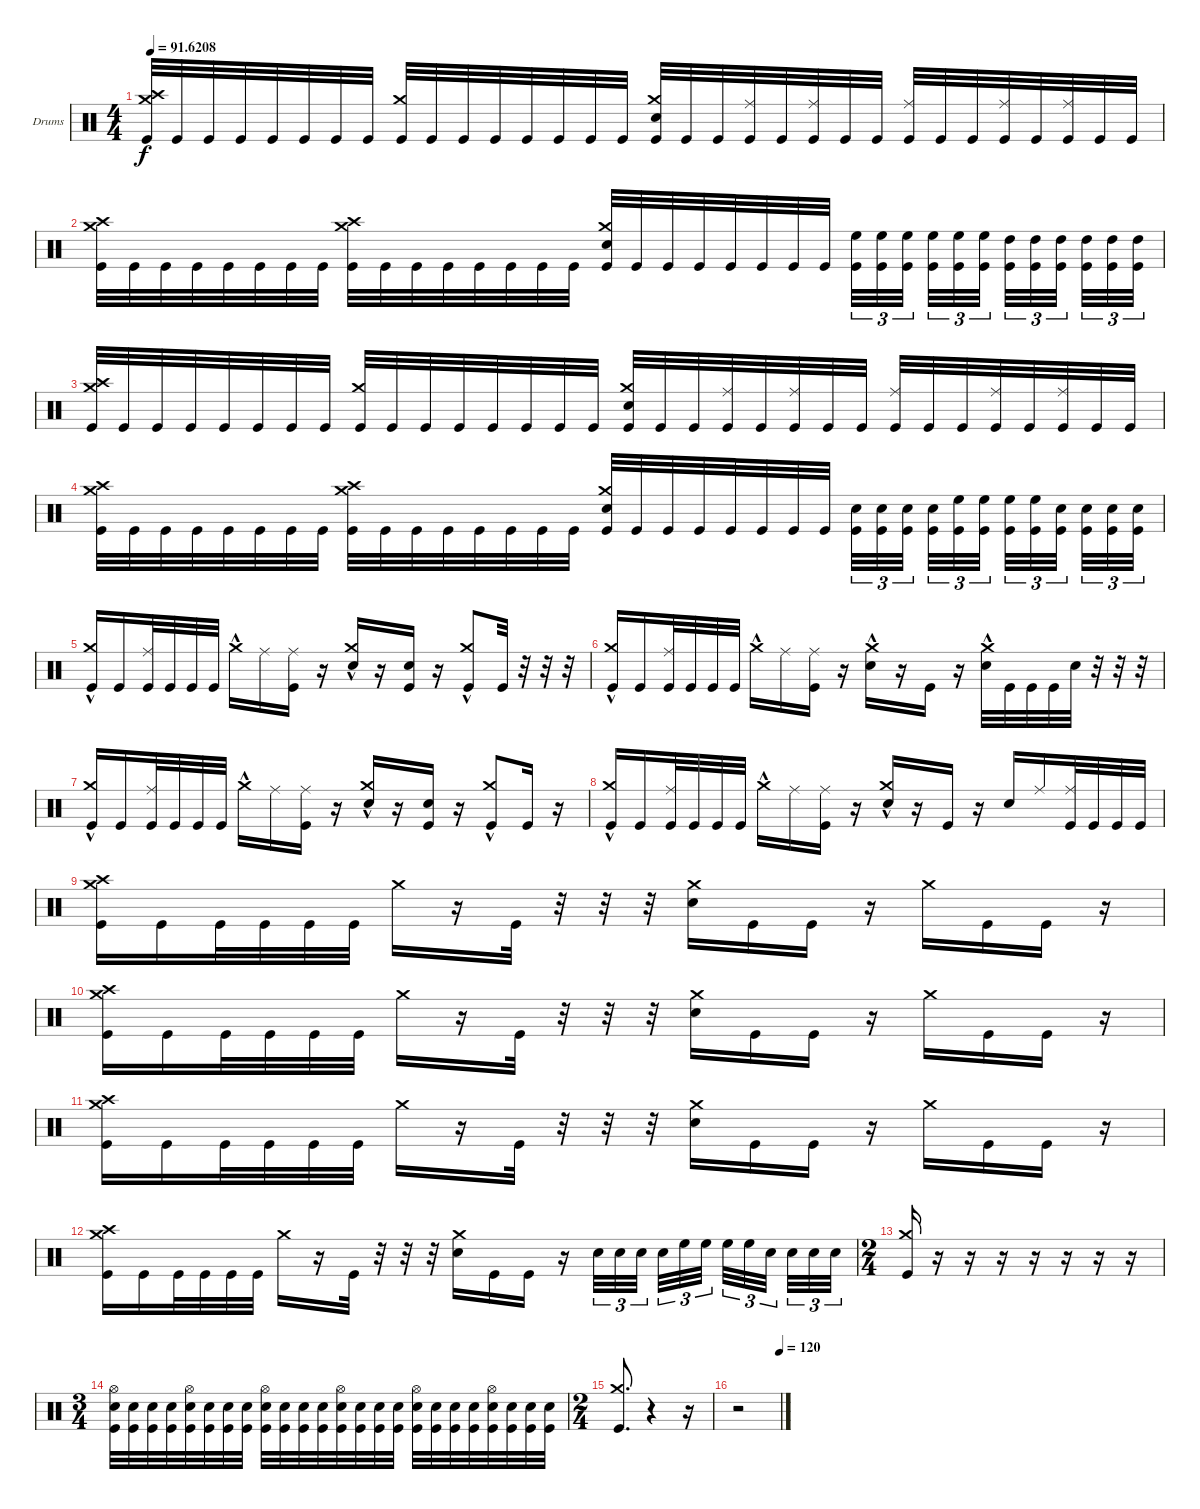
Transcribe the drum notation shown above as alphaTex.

\defaultSystemsLayout 4
\bracketExtendMode groupsimilarinstruments
\firstSystemTrackNameOrientation horizontal
\otherSystemsTrackNameOrientation horizontal
\track ("Drumkit" "Drums") {instrument percussion}
\staff {score}
\articulation defaults
\ts (4 4)
\tempo
91.6208
\accidentals auto
\clef neutral
\ottava regular
\simile none
\ks c
("Crash medium (hit)" "Crash high (hit)" "Kick (hit)").32{dy f} "Kick (hit)".32 "Kick (hit)".32 "Kick (hit)".32 "Kick (hit)".32 "Kick (hit)".32 "Kick (hit)".32 "Kick (hit)".32 ("Kick (hit)" "Crash medium (hit)").32{beam invert} "Kick (hit)".32 "Kick (hit)".32 "Kick (hit)".32 "Kick (hit)".32 "Kick (hit)".32 "Kick (hit)".32 "Kick (hit)".32 ("Kick (hit)" "Snare (hit) 2" "Crash medium (hit)").32 "Kick (hit)".32 "Kick (hit)".32 ("Kick (hit)" "Ride (middle)").32 "Kick (hit)".32 ("Kick (hit)" "Ride (middle)").32 "Kick (hit)".32 "Kick (hit)".32 ("Kick (hit)" "Ride (middle)").32{beam invert} "Kick (hit)".32 "Kick (hit)".32 ("Kick (hit)" "Ride (middle)").32 "Kick (hit)".32 ("Kick (hit)" "Ride (middle)").32 "Kick (hit)".32 "Kick (hit)".32 |
("Crash medium (hit)" "Crash high (hit)" "Kick (hit)").32 "Kick (hit)".32 "Kick (hit)".32 "Kick (hit)".32 "Kick (hit)".32 "Kick (hit)".32 "Kick (hit)".32 "Kick (hit)".32 ("Kick (hit)" "Crash medium (hit)" "Crash high (hit)").32 "Kick (hit)".32 "Kick (hit)".32 "Kick (hit)".32 "Kick (hit)".32 "Kick (hit)".32 "Kick (hit)".32 "Kick (hit)".32 ("Kick (hit)" "Snare (hit) 2" "Crash medium (hit)").32 "Kick (hit)".32 "Kick (hit)".32 "Kick (hit)".32 "Kick (hit)".32 "Kick (hit)".32 "Kick (hit)".32 "Kick (hit)".32 ("Kick (hit)" "High Floor Tom (hit)").32{tu (3 2) beam invert} ("Kick (hit)" "High Floor Tom (hit)").32{tu (3 2)} ("Kick (hit)" "High Floor Tom (hit)").32{tu (3 2)} ("Kick (hit)" "High Floor Tom (hit)").32{tu (3 2) beam invert} ("Kick (hit)" "High Floor Tom (hit)").32{tu (3 2)} ("Kick (hit)" "High Floor Tom (hit)").32{tu (3 2)} ("Kick (hit)" "High Tom (hit)").32{tu (3 2) beam invert} ("Kick (hit)" "High Tom (hit)").32{tu (3 2)} ("Kick (hit)" "High Tom (hit)").32{tu (3 2)} ("Kick (hit)" "High Tom (hit)").32{tu (3 2) beam invert} ("Kick (hit)" "High Tom (hit)").32{tu (3 2)} ("Kick (hit)" "High Tom (hit)").32{tu (3 2)} |
("Crash medium (hit)" "Crash high (hit)" "Kick (hit)").32 "Kick (hit)".32 "Kick (hit)".32 "Kick (hit)".32 "Kick (hit)".32 "Kick (hit)".32 "Kick (hit)".32 "Kick (hit)".32 ("Kick (hit)" "Crash medium (hit)").32{beam invert} "Kick (hit)".32 "Kick (hit)".32 "Kick (hit)".32 "Kick (hit)".32 "Kick (hit)".32 "Kick (hit)".32 "Kick (hit)".32 ("Kick (hit)" "Snare (hit) 2" "Crash medium (hit)").32 "Kick (hit)".32 "Kick (hit)".32 ("Kick (hit)" "Ride (middle)").32 "Kick (hit)".32 ("Kick (hit)" "Ride (middle)").32 "Kick (hit)".32 "Kick (hit)".32 ("Kick (hit)" "Ride (middle)").32{beam invert} "Kick (hit)".32 "Kick (hit)".32 ("Kick (hit)" "Ride (middle)").32 "Kick (hit)".32 ("Kick (hit)" "Ride (middle)").32 "Kick (hit)".32 "Kick (hit)".32 |
("Crash medium (hit)" "Crash high (hit)" "Kick (hit)").32 "Kick (hit)".32 "Kick (hit)".32 "Kick (hit)".32 "Kick (hit)".32 "Kick (hit)".32 "Kick (hit)".32 "Kick (hit)".32 ("Kick (hit)" "Crash medium (hit)" "Crash high (hit)").32 "Kick (hit)".32 "Kick (hit)".32 "Kick (hit)".32 "Kick (hit)".32 "Kick (hit)".32 "Kick (hit)".32 "Kick (hit)".32 ("Kick (hit)" "Snare (hit) 2" "Crash medium (hit)").32 "Kick (hit)".32 "Kick (hit)".32 "Kick (hit)".32 "Kick (hit)".32 "Kick (hit)".32 "Kick (hit)".32 "Kick (hit)".32 ("Kick (hit)" "Snare (hit) 2").32{tu (3 2) beam invert} ("Kick (hit)" "Snare (hit) 2").32{tu (3 2)} ("Kick (hit)" "Snare (hit) 2").32{tu (3 2)} ("Kick (hit)" "Snare (hit) 2").32{tu (3 2) beam invert} ("Kick (hit)" "High Floor Tom (hit)").32{tu (3 2)} ("Kick (hit)" "High Floor Tom (hit)").32{tu (3 2)} ("Kick (hit)" "High Floor Tom (hit)").32{tu (3 2) beam invert} ("Kick (hit)" "High Floor Tom (hit)").32{tu (3 2)} ("Kick (hit)" "Snare (hit) 2").32{tu (3 2)} ("Kick (hit)" "Snare (hit) 2").32{tu (3 2) beam invert} ("Kick (hit)" "Snare (hit) 2").32{tu (3 2)} ("Kick (hit)" "Snare (hit) 2").32{tu (3 2)} |
("Crash medium (hit)"{hac} "Kick (hit)").16{beam invert} "Kick (hit)".16 ("Kick (hit)" "Ride (middle)").32 "Kick (hit)".32 "Kick (hit)".32 "Kick (hit)".32 "Crash medium (hit)"{hac}.16 "Ride (middle)".16 ("Ride (middle)" "Kick (hit)").16 r.16 ("Snare (hit) 2" "Crash medium (hit)"{hac}).16 r.16 ("Snare (hit) 2" "Kick (hit)").16 r.16 ("Kick (hit)" "Crash medium (hit)"{hac}).8{beam invert} "Kick (hit)".32 r.32 r.32 r.32 |
("Crash medium (hit)"{hac} "Kick (hit)").16{beam invert} "Kick (hit)".16 ("Kick (hit)" "Ride (middle)").32 "Kick (hit)".32 "Kick (hit)".32 "Kick (hit)".32 "Crash medium (hit)"{hac}.16 "Ride (middle)".16 ("Ride (middle)" "Kick (hit)").16 r.16 ("Snare (hit) 2" "Crash medium (hit)"{hac}).16 r.16 "Kick (hit)".16 r.16 ("Snare (hit) 2" "Crash medium (hit)"{hac}).32 "Kick (hit)".32 "Kick (hit)".32 "Kick (hit)".32 "Snare (hit) 2".32 r.32 r.32 r.32 |
("Crash medium (hit)"{hac} "Kick (hit)").16{beam invert} "Kick (hit)".16 ("Kick (hit)" "Ride (middle)").32 "Kick (hit)".32 "Kick (hit)".32 "Kick (hit)".32 "Crash medium (hit)"{hac}.16 "Ride (middle)".16 ("Ride (middle)" "Kick (hit)").16 r.16 ("Snare (hit) 2" "Crash medium (hit)"{hac}).16 r.16 ("Snare (hit) 2" "Kick (hit)").16 r.16 ("Kick (hit)" "Crash medium (hit)"{hac}).8{beam invert} "Kick (hit)".16 r.16 |
("Crash medium (hit)"{hac} "Kick (hit)").16{beam invert} "Kick (hit)".16 ("Kick (hit)" "Ride (middle)").32 "Kick (hit)".32 "Kick (hit)".32 "Kick (hit)".32 "Crash medium (hit)"{hac}.16 "Ride (middle)".16 ("Ride (middle)" "Kick (hit)").16 r.16 ("Snare (hit) 2" "Crash medium (hit)"{hac}).16 r.16 "Kick (hit)".16 r.16 "Snare (hit) 2".16{beam invert} "Ride (middle)".16 ("Ride (middle)" "Kick (hit)").32 "Kick (hit)".32 "Kick (hit)".32 "Kick (hit)".32 |
("Crash medium (hit)" "Crash high (hit)" "Kick (hit)").16 "Kick (hit)".16 "Kick (hit)".32 "Kick (hit)".32 "Kick (hit)".32 "Kick (hit)".32 "Crash medium (hit)".16 r.16 "Kick (hit)".32 r.32 r.32 r.32 ("Snare (hit) 2" "Crash medium (hit)").16 "Kick (hit)".16 "Kick (hit)".16 r.16 "Crash medium (hit)".16 "Kick (hit)".16 "Kick (hit)".16 r.16 |
("Crash medium (hit)" "Crash high (hit)" "Kick (hit)").16 "Kick (hit)".16 "Kick (hit)".32 "Kick (hit)".32 "Kick (hit)".32 "Kick (hit)".32 "Crash medium (hit)".16 r.16 "Kick (hit)".32 r.32 r.32 r.32 ("Snare (hit) 2" "Crash medium (hit)").16 "Kick (hit)".16 "Kick (hit)".16 r.16 "Crash medium (hit)".16 "Kick (hit)".16 "Kick (hit)".16 r.16 |
("Crash medium (hit)" "Crash high (hit)" "Kick (hit)").16 "Kick (hit)".16 "Kick (hit)".32 "Kick (hit)".32 "Kick (hit)".32 "Kick (hit)".32 "Crash medium (hit)".16 r.16 "Kick (hit)".32 r.32 r.32 r.32 ("Snare (hit) 2" "Crash medium (hit)").16 "Kick (hit)".16 "Kick (hit)".16 r.16 "Crash medium (hit)".16 "Kick (hit)".16 "Kick (hit)".16 r.16 |
("Crash medium (hit)" "Crash high (hit)" "Kick (hit)").16 "Kick (hit)".16 "Kick (hit)".32 "Kick (hit)".32 "Kick (hit)".32 "Kick (hit)".32 "Crash medium (hit)".16 r.16 "Kick (hit)".32 r.32 r.32 r.32 ("Snare (hit) 2" "Crash medium (hit)").16 "Kick (hit)".16 "Kick (hit)".16 r.16 "Snare (hit) 2".32{tu (3 2)} "Snare (hit) 2".32{tu (3 2)} "Snare (hit) 2".32{tu (3 2)} "Snare (hit) 2".32{tu (3 2)} "High Floor Tom (hit)".32{tu (3 2)} "High Floor Tom (hit)".32{tu (3 2)} "High Floor Tom (hit)".32{tu (3 2)} "High Floor Tom (hit)".32{tu (3 2)} "Snare (hit) 2".32{tu (3 2)} "Snare (hit) 2".32{tu (3 2)} "Snare (hit) 2".32{tu (3 2)} "Snare (hit) 2".32{tu (3 2)} |
\ts (2 4)
("Crash medium (hit)" "Kick (hit)").16{beam invert} r.16 r.16 r.16 r.16 r.16 r.16 r.16 |
\ts (3 4)
("Hi-Hat (open)" "Snare (hit) 2" "Kick (hit)").32 ("Kick (hit)" "Snare (hit) 2").32 ("Kick (hit)" "Snare (hit) 2").32 ("Kick (hit)" "Snare (hit) 2").32 ("Kick (hit)" "Hi-Hat (open)" "Snare (hit) 2").32 ("Kick (hit)" "Snare (hit) 2").32 ("Kick (hit)" "Snare (hit) 2").32 ("Kick (hit)" "Snare (hit) 2").32 ("Kick (hit)" "Hi-Hat (open)" "Snare (hit) 2").32 ("Kick (hit)" "Snare (hit) 2").32 ("Kick (hit)" "Snare (hit) 2").32 ("Kick (hit)" "Snare (hit) 2").32 ("Kick (hit)" "Hi-Hat (open)" "Snare (hit) 2").32 ("Kick (hit)" "Snare (hit) 2").32 ("Kick (hit)" "Snare (hit) 2").32 ("Kick (hit)" "Snare (hit) 2").32 ("Kick (hit)" "Hi-Hat (open)" "Snare (hit) 2").32 ("Kick (hit)" "Snare (hit) 2").32 ("Kick (hit)" "Snare (hit) 2").32 ("Kick (hit)" "Snare (hit) 2").32 ("Kick (hit)" "Hi-Hat (open)" "Snare (hit) 2").32 ("Kick (hit)" "Snare (hit) 2").32 ("Kick (hit)" "Snare (hit) 2").32 ("Kick (hit)" "Snare (hit) 2").32 |
\ts (2 4)
("Crash medium (hit)" "Kick (hit)").8{d beam invert} r.4 r.16 |
\tempo (120 0.99375)
r.2
